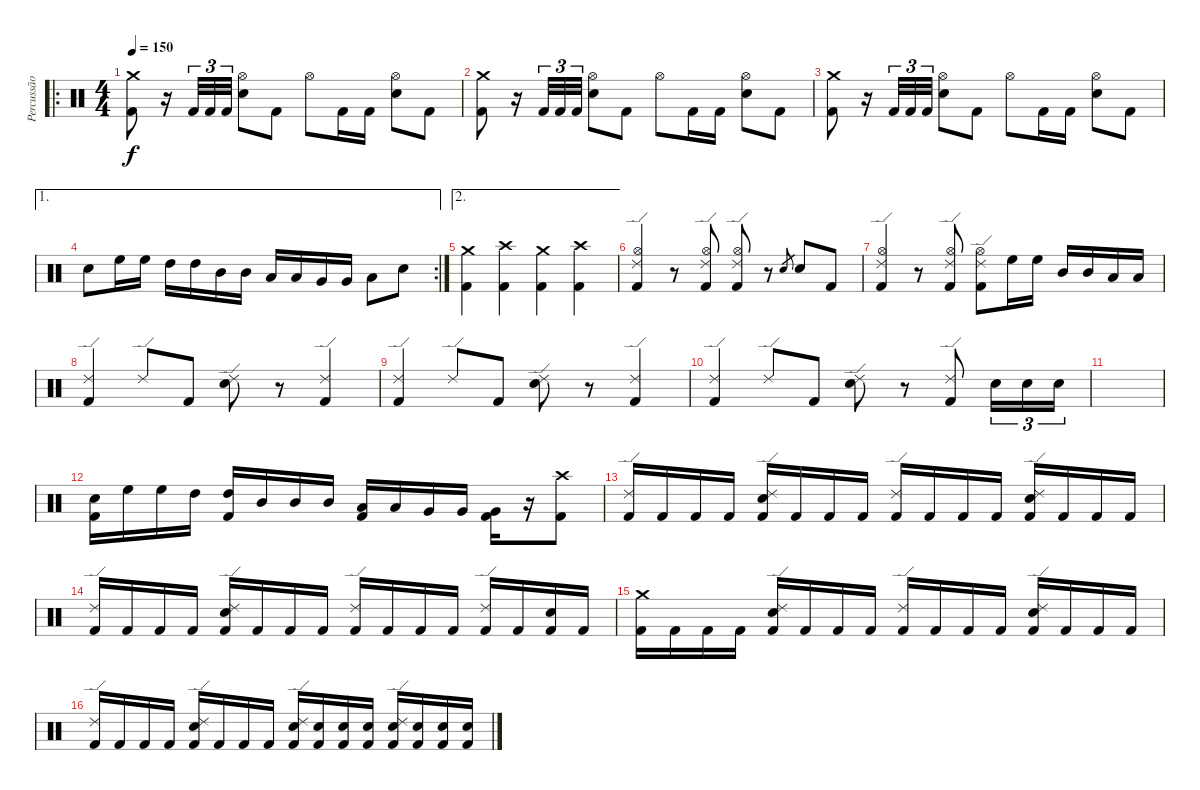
\track ("Percussão" "Percussão") {instrument percussion}
\staff {score}
\articulation defaults
\ro
\ts (4 4)
\tempo 150
\clef neutral
\ks c
("Crash medium (hit)" "Kick (hit) 2").8{dy f} r.16 "Kick (hit) 2".32{tu (3 2)} "Kick (hit) 2".32{tu (3 2)} "Kick (hit) 2".32{tu (3 2)} ("Hi-Hat (open)" "Snare (hit) 2").8 "Kick (hit) 2".8 "Hi-Hat (open)".8 "Kick (hit) 2".16 "Kick (hit) 2".16 ("Hi-Hat (open)" "Snare (hit) 2").8 "Kick (hit) 2".8 |
("Crash medium (hit)" "Kick (hit) 2").8 r.16 "Kick (hit) 2".32{tu (3 2)} "Kick (hit) 2".32{tu (3 2)} "Kick (hit) 2".32{tu (3 2)} ("Hi-Hat (open)" "Snare (hit) 2").8 "Kick (hit) 2".8 "Hi-Hat (open)".8 "Kick (hit) 2".16 "Kick (hit) 2".16 ("Hi-Hat (open)" "Snare (hit) 2").8 "Kick (hit) 2".8 |
("Crash medium (hit)" "Kick (hit) 2").8 r.16 "Kick (hit) 2".32{tu (3 2)} "Kick (hit) 2".32{tu (3 2)} "Kick (hit) 2".32{tu (3 2)} ("Hi-Hat (open)" "Snare (hit) 2").8 "Kick (hit) 2".8 "Hi-Hat (open)".8 "Kick (hit) 2".16 "Kick (hit) 2".16 ("Hi-Hat (open)" "Snare (hit) 2").8 "Kick (hit) 2".8 |
\ae 1
\rc 2 "Snare (hit) 2".8 "High Floor Tom (hit)".16 "High Floor Tom (hit)".16 "High Tom (hit)".16 "High Tom (hit)".16 "Mid Tom (hit)".16 "Mid Tom (hit)".16 "Low Tom (hit)".16 "Low Tom (hit)".16 "Very Low Tom (hit)".16 "Very Low Tom (hit)".16 "Low Floor Tom (hit)".8 "Snare (hit) 2".8
|
\ae 2
("Crash medium (hit)" "Kick (hit) 2").4 ("Crash high (hit)" "Kick (hit) 2").4 ("Crash medium (hit)" "Kick (hit) 2").4 ("Crash high (hit)" "Kick (hit) 2").4 |
("Ride (edge) 2" "Hi-Hat (open)" "Kick (hit) 2").4 r.8 ("Ride (edge) 2" "Hi-Hat (open)" "Kick (hit) 2").8 ("Ride (edge) 2" "Hi-Hat (open)" "Kick (hit) 2").8 r.8 "Snare (hit) 2".8{gr} "Snare (hit) 2".8 "Kick (hit) 2".8 |
("Ride (edge) 2" "Hi-Hat (open)" "Kick (hit) 2").4 r.8 ("Ride (edge) 2" "Hi-Hat (open)" "Kick (hit) 2").8 ("Ride (edge) 2" "Hi-Hat (open)" "Kick (hit) 2").8 "High Floor Tom (hit)".16 "High Floor Tom (hit)".16 "Mid Tom (hit)".16 "Mid Tom (hit)".16 "Low Tom (hit)".16 "Low Tom (hit)".16 |
("Ride (edge) 2" "Kick (hit) 2").4 "Ride (edge) 2".8 "Kick (hit) 2".8 ("Ride (edge) 2" "Snare (hit) 2").8 r.8 ("Ride (edge) 2" "Kick (hit) 2").4 |
("Ride (edge) 2" "Kick (hit) 2").4 "Ride (edge) 2".8 "Kick (hit) 2".8 ("Ride (edge) 2" "Snare (hit) 2").8 r.8 ("Ride (edge) 2" "Kick (hit) 2").4 |
("Ride (edge) 2" "Kick (hit) 2").4 "Ride (edge) 2".8 "Kick (hit) 2".8 ("Ride (edge) 2" "Snare (hit) 2").8 r.8 ("Ride (edge) 2" "Kick (hit) 2").8 "Snare (hit) 2".16{tu (3 2)} "Snare (hit) 2".16{tu (3 2)} "Snare (hit) 2".16{tu (3 2)} |
|
("Snare (hit) 2" "Kick (hit) 2").16 "High Floor Tom (hit)".16 "High Floor Tom (hit)".16 "High Tom (hit)".16 ("High Tom (hit)" "Kick (hit) 2").16 "Mid Tom (hit)".16 "Mid Tom (hit)".16 "Mid Tom (hit)".16 ("Low Tom (hit)" "Kick (hit) 2").16 "Low Tom (hit)".16 "Very Low Tom (hit)".16 "Very Low Tom (hit)".16 ("Very Low Tom (hit)" "Kick (hit) 2").16 r.16 ("Crash high (hit)" "Kick (hit) 2").8 |
("Ride (edge) 2" "Kick (hit) 2").16 "Kick (hit) 2".16 "Kick (hit) 2".16 "Kick (hit) 2".16 ("Ride (edge) 2" "Snare (hit) 2" "Kick (hit) 2").16 "Kick (hit) 2".16 "Kick (hit) 2".16 "Kick (hit) 2".16 ("Ride (edge) 2" "Kick (hit) 2").16 "Kick (hit) 2".16 "Kick (hit) 2".16 "Kick (hit) 2".16 ("Ride (edge) 2" "Snare (hit) 2" "Kick (hit) 2").16 "Kick (hit) 2".16 "Kick (hit) 2".16 "Kick (hit) 2".16 |
("Ride (edge) 2" "Kick (hit) 2").16 "Kick (hit) 2".16 "Kick (hit) 2".16 "Kick (hit) 2".16 ("Ride (edge) 2" "Snare (hit) 2" "Kick (hit) 2").16 "Kick (hit) 2".16 "Kick (hit) 2".16 "Kick (hit) 2".16 ("Ride (edge) 2" "Kick (hit) 2").16 "Kick (hit) 2".16 "Kick (hit) 2".16 "Kick (hit) 2".16 ("Ride (edge) 2" "Kick (hit) 2").16 "Kick (hit) 2".16 ("Snare (hit) 2" "Kick (hit) 2").16 "Kick (hit) 2".16 |
("Crash medium (hit)" "Kick (hit) 2").16 "Kick (hit) 2".16 "Kick (hit) 2".16 "Kick (hit) 2".16 ("Ride (edge) 2" "Snare (hit) 2" "Kick (hit) 2").16 "Kick (hit) 2".16 "Kick (hit) 2".16 "Kick (hit) 2".16 ("Ride (edge) 2" "Kick (hit) 2").16 "Kick (hit) 2".16 "Kick (hit) 2".16 "Kick (hit) 2".16 ("Ride (edge) 2" "Snare (hit) 2" "Kick (hit) 2").16 "Kick (hit) 2".16 "Kick (hit) 2".16 "Kick (hit) 2".16 |
("Ride (edge) 2" "Kick (hit) 2").16 "Kick (hit) 2".16 "Kick (hit) 2".16 "Kick (hit) 2".16 ("Ride (edge) 2" "Snare (hit) 2" "Kick (hit) 2").16 "Kick (hit) 2".16 "Kick (hit) 2".16 "Kick (hit) 2".16 ("Ride (edge) 2" "Snare (hit) 2" "Kick (hit) 2").16 ("Snare (hit) 2" "Kick (hit) 2").16 ("Snare (hit) 2" "Kick (hit) 2").16 ("Snare (hit) 2" "Kick (hit) 2").16 ("Ride (edge) 2" "Snare (hit) 2" "Kick (hit) 2").16 ("Snare (hit) 2" "Kick (hit) 2").16 ("Snare (hit) 2" "Kick (hit) 2").16 ("Snare (hit) 2" "Kick (hit) 2").16
